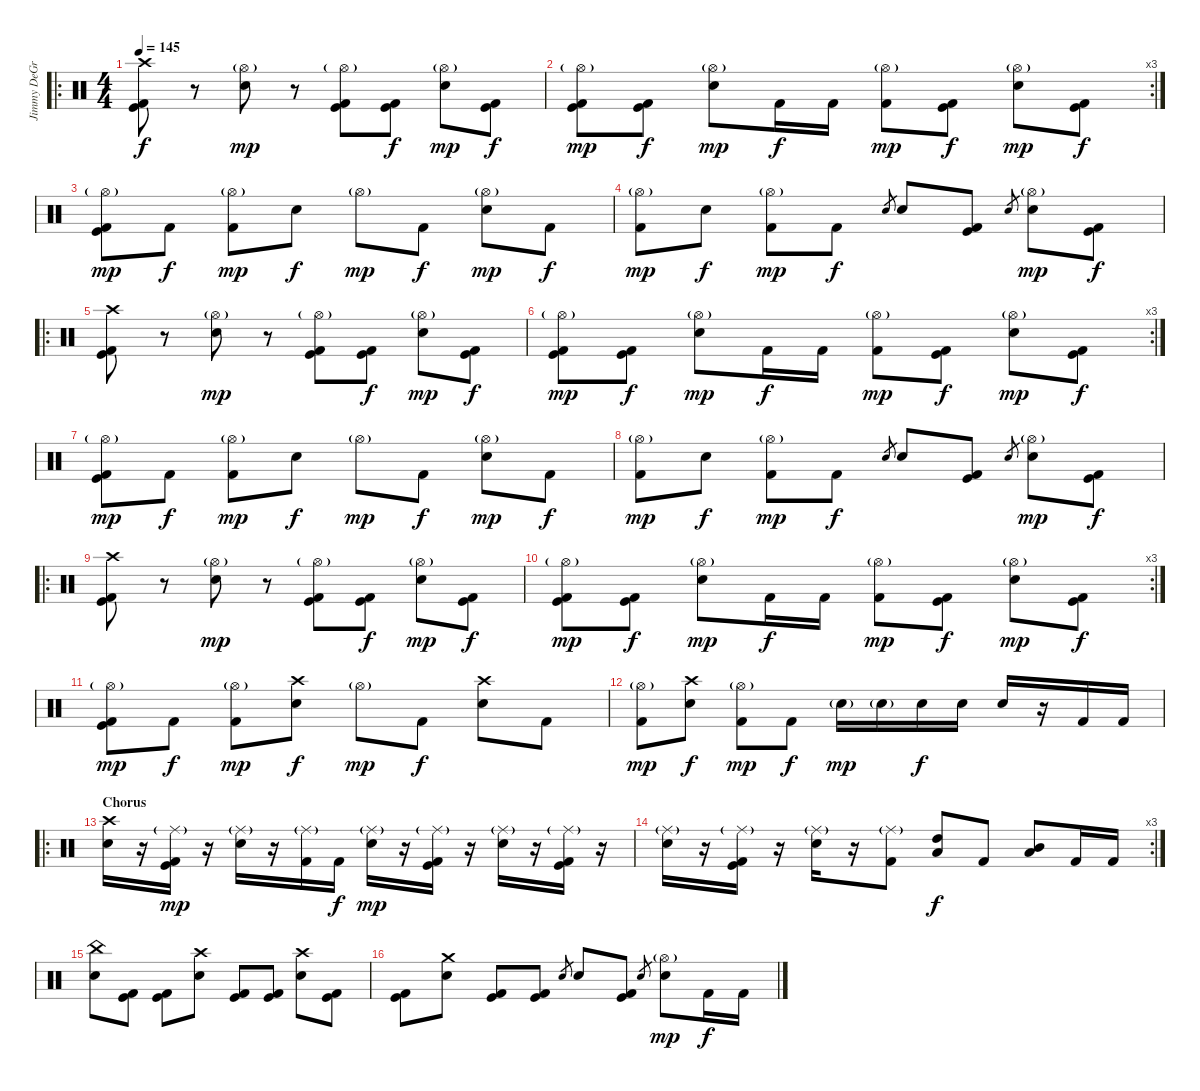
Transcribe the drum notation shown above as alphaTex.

\track ("Jimmy DeGrasso" "Jimmy DeGr") {instrument percussion}
\staff {score}
\articulation defaults
\ro
\ts (4 4)
\tempo 145
\clef neutral
\ks c
("Crash high (hit)" "Kick (hit)" "Kick (hit) 2").8{dy f} r.8 ("Hi-Hat (open)"{g} "Electric Snare (hit)").8{dy mp} r.8 ("Hi-Hat (open)"{g} "Kick (hit)" "Kick (hit) 2").8 ("Kick (hit)" "Kick (hit) 2").8{dy f} ("Hi-Hat (open)"{g} "Electric Snare (hit)").8{dy mp} ("Kick (hit)" "Kick (hit) 2").8{dy f} |
\rc 3
("Hi-Hat (open)"{g} "Kick (hit)" "Kick (hit) 2").8{dy mp} ("Kick (hit)" "Kick (hit) 2").8{dy f} ("Hi-Hat (open)"{g} "Electric Snare (hit)").8{dy mp} "Kick (hit) 2".16{dy f} "Kick (hit) 2".16 ("Hi-Hat (open)"{g} "Kick (hit) 2").8{dy mp} ("Kick (hit)" "Kick (hit) 2").8{dy f} ("Hi-Hat (open)"{g} "Electric Snare (hit)").8{dy mp} ("Kick (hit)" "Kick (hit) 2").8{dy f} |
("Hi-Hat (open)"{g} "Kick (hit)" "Kick (hit) 2").8{dy mp} "Kick (hit) 2".8{dy f} ("Hi-Hat (open)"{g} "Kick (hit) 2").8{dy mp} "Electric Snare (hit)".8{dy f} "Hi-Hat (open)"{g}.8{dy mp} "Kick (hit) 2".8{dy f} ("Hi-Hat (open)"{g} "Electric Snare (hit)").8{dy mp} "Kick (hit) 2".8{dy f} |
("Hi-Hat (open)"{g} "Kick (hit) 2").8{dy mp} "Electric Snare (hit)".8{dy f} ("Hi-Hat (open)"{g} "Kick (hit) 2").8{dy mp} "Kick (hit) 2".8{dy f} "Electric Snare (hit)".8{gr} "Electric Snare (hit)".8 ("Kick (hit)" "Kick (hit) 2").8 "Electric Snare (hit)".8{gr} ("Hi-Hat (open)"{g} "Electric Snare (hit)").8{dy mp} ("Kick (hit)" "Kick (hit) 2").8{dy f} |
\ro
("Crash high (hit)" "Kick (hit)" "Kick (hit) 2").8 r.8 ("Hi-Hat (open)"{g} "Electric Snare (hit)").8{dy mp} r.8 ("Hi-Hat (open)"{g} "Kick (hit)" "Kick (hit) 2").8 ("Kick (hit)" "Kick (hit) 2").8{dy f} ("Hi-Hat (open)"{g} "Electric Snare (hit)").8{dy mp} ("Kick (hit)" "Kick (hit) 2").8{dy f} |
\rc 3
("Hi-Hat (open)"{g} "Kick (hit)" "Kick (hit) 2").8{dy mp} ("Kick (hit)" "Kick (hit) 2").8{dy f} ("Hi-Hat (open)"{g} "Electric Snare (hit)").8{dy mp} "Kick (hit) 2".16{dy f} "Kick (hit) 2".16 ("Hi-Hat (open)"{g} "Kick (hit) 2").8{dy mp} ("Kick (hit)" "Kick (hit) 2").8{dy f} ("Hi-Hat (open)"{g} "Electric Snare (hit)").8{dy mp} ("Kick (hit)" "Kick (hit) 2").8{dy f} |
("Hi-Hat (open)"{g} "Kick (hit)" "Kick (hit) 2").8{dy mp} "Kick (hit) 2".8{dy f} ("Hi-Hat (open)"{g} "Kick (hit) 2").8{dy mp} "Electric Snare (hit)".8{dy f} "Hi-Hat (open)"{g}.8{dy mp} "Kick (hit) 2".8{dy f} ("Hi-Hat (open)"{g} "Electric Snare (hit)").8{dy mp} "Kick (hit) 2".8{dy f} |
("Hi-Hat (open)"{g} "Kick (hit) 2").8{dy mp} "Electric Snare (hit)".8{dy f} ("Hi-Hat (open)"{g} "Kick (hit) 2").8{dy mp} "Kick (hit) 2".8{dy f} "Electric Snare (hit)".8{gr} "Electric Snare (hit)".8 ("Kick (hit)" "Kick (hit) 2").8 "Electric Snare (hit)".8{gr} ("Hi-Hat (open)"{g} "Electric Snare (hit)").8{dy mp} ("Kick (hit)" "Kick (hit) 2").8{dy f} |
\ro
("Crash high (hit)" "Kick (hit)" "Kick (hit) 2").8 r.8 ("Hi-Hat (open)"{g} "Electric Snare (hit)").8{dy mp} r.8 ("Hi-Hat (open)"{g} "Kick (hit)" "Kick (hit) 2").8 ("Kick (hit)" "Kick (hit) 2").8{dy f} ("Hi-Hat (open)"{g} "Electric Snare (hit)").8{dy mp} ("Kick (hit)" "Kick (hit) 2").8{dy f} |
\rc 3
("Hi-Hat (open)"{g} "Kick (hit)" "Kick (hit) 2").8{dy mp} ("Kick (hit)" "Kick (hit) 2").8{dy f} ("Hi-Hat (open)"{g} "Electric Snare (hit)").8{dy mp} "Kick (hit) 2".16{dy f} "Kick (hit) 2".16 ("Hi-Hat (open)"{g} "Kick (hit) 2").8{dy mp} ("Kick (hit)" "Kick (hit) 2").8{dy f} ("Hi-Hat (open)"{g} "Electric Snare (hit)").8{dy mp} ("Kick (hit)" "Kick (hit) 2").8{dy f} |
("Hi-Hat (open)"{g} "Kick (hit)" "Kick (hit) 2").8{dy mp} "Kick (hit) 2".8{dy f} ("Hi-Hat (open)"{g} "Kick (hit) 2").8{dy mp} ("Crash high (hit)" "Electric Snare (hit)").8{dy f} "Hi-Hat (open)"{g}.8{dy mp} "Kick (hit) 2".8{dy f} ("Crash high (hit)" "Electric Snare (hit)").8 "Kick (hit) 2".8 |
("Hi-Hat (open)"{g} "Kick (hit) 2").8{dy mp} ("Crash high (hit)" "Electric Snare (hit)").8{dy f} ("Hi-Hat (open)"{g} "Kick (hit) 2").8{dy mp} "Kick (hit) 2".8{dy f} "Electric Snare (hit)"{g}.16{dy mp} "Electric Snare (hit)"{g}.16 "Electric Snare (hit)".16{dy f} "Electric Snare (hit)".16 "Electric Snare (hit)".16 r.16 "Kick (hit) 2".16 "Kick (hit) 2".16 |
\ro
\section ("" "Chorus")
("Crash high (hit)" "Electric Snare (hit)").16 r.16 ("Ride (middle)"{g} "Kick (hit)" "Kick (hit) 2").16{dy mp} r.16 ("Ride (middle)"{g} "Electric Snare (hit)").16 r.16 ("Ride (middle)"{g} "Kick (hit) 2").16 "Kick (hit) 2".16{dy f} ("Ride (middle)"{g} "Electric Snare (hit)").16{dy mp} r.16 ("Ride (middle)"{g} "Kick (hit)" "Kick (hit) 2").16 r.16 ("Ride (middle)"{g} "Electric Snare (hit)").16 r.16 ("Ride (middle)"{g} "Kick (hit)" "Kick (hit) 2").16 r.16 |
\rc 3
("Ride (middle)"{g} "Electric Snare (hit)").16 r.16 ("Ride (middle)"{g} "Kick (hit)" "Kick (hit) 2").16 r.16 ("Ride (middle)"{g} "Electric Snare (hit)").16 r.16 ("Ride (middle)"{g} "Kick (hit) 2").8 ("High Tom (hit)" "Low Floor Tom (hit)").8{dy f} "Kick (hit) 2".8 ("Mid Tom (hit)" "Low Floor Tom (hit)").8 "Kick (hit) 2".16 "Kick (hit) 2".16 |
("China (hit)" "Electric Snare (hit)").8 ("Kick (hit)" "Kick (hit) 2").8 ("Kick (hit)" "Kick (hit) 2").8 ("Crash high (hit)" "Electric Snare (hit)").8 ("Kick (hit)" "Kick (hit) 2").8 ("Kick (hit)" "Kick (hit) 2").8 ("Crash high (hit)" "Electric Snare (hit)").8 ("Kick (hit)" "Kick (hit) 2").8 |
("Kick (hit)" "Kick (hit) 2").8 ("Crash medium (hit)" "Electric Snare (hit)").8 ("Kick (hit)" "Kick (hit) 2").8 ("Kick (hit)" "Kick (hit) 2").8 "Electric Snare (hit)".8{gr} "Electric Snare (hit)".8 ("Kick (hit)" "Kick (hit) 2").8 "Electric Snare (hit)".8{gr} ("Hi-Hat (open)"{g} "Electric Snare (hit)").8{dy mp} "Kick (hit) 2".16{dy f} "Kick (hit) 2".16
